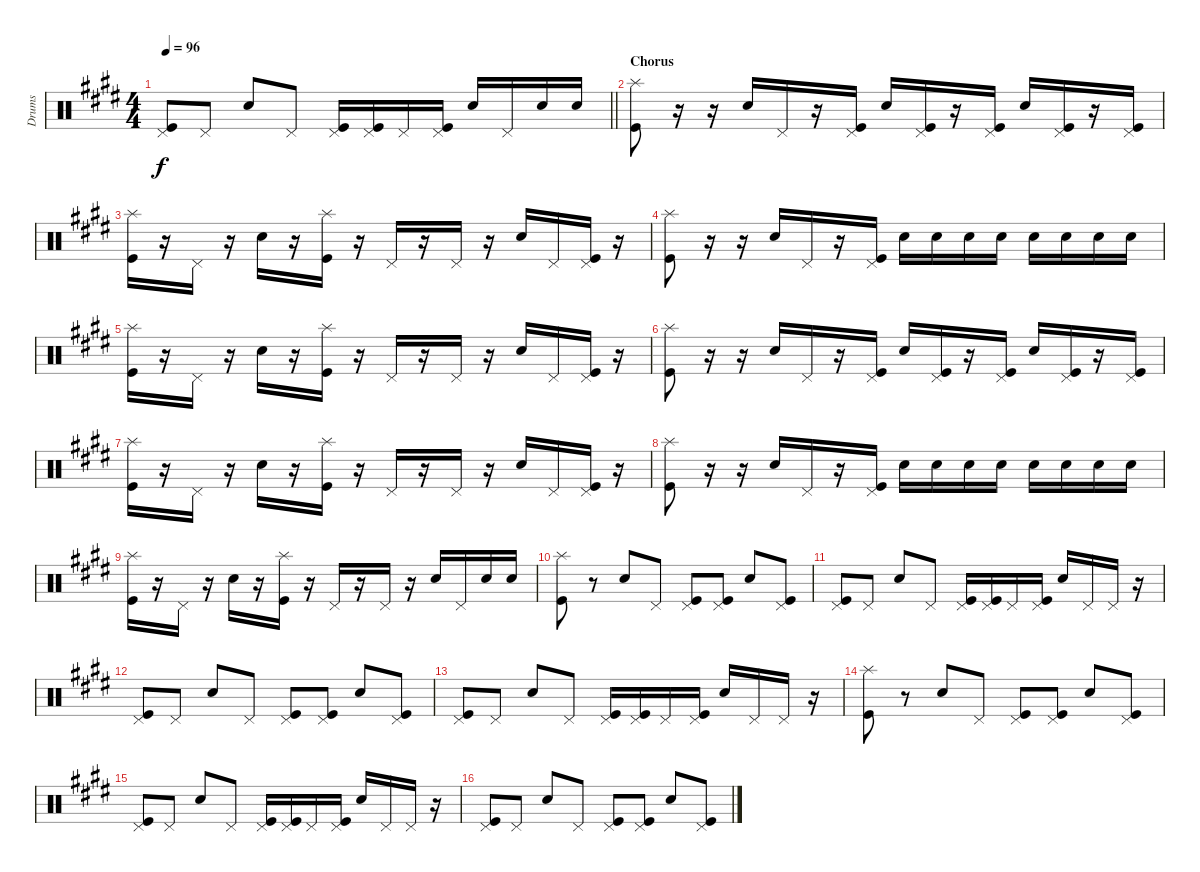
\track ("Drums" "Drums") {instrument percussion}
\staff {score}
\articulation defaults
\ts (4 4)
\tempo 96
\clef neutral
\barLineRight lightlight
\ks e
("Kick (hit)" "Pedal Hi-Hat (hit)").8{dy f} "Pedal Hi-Hat (hit)".8 "Electric Snare (hit)".8 "Pedal Hi-Hat (hit)".8 ("Kick (hit)" "Pedal Hi-Hat (hit)").16 ("Kick (hit)" "Pedal Hi-Hat (hit)").16 "Pedal Hi-Hat (hit)".16 ("Kick (hit)" "Pedal Hi-Hat (hit)").16 "Electric Snare (hit)".16 "Pedal Hi-Hat (hit)".16 "Electric Snare (hit)".16 "Electric Snare (hit)".16 |
\section ("" "Chorus")
("Kick (hit)" "Splash (hit)").8 r.16 r.16 "Electric Snare (hit)".16 "Pedal Hi-Hat (hit)".16 r.16 ("Kick (hit)" "Pedal Hi-Hat (hit)").16 "Electric Snare (hit)".16 ("Kick (hit)" "Pedal Hi-Hat (hit)").16 r.16 ("Kick (hit)" "Pedal Hi-Hat (hit)").16 "Electric Snare (hit)".16 ("Kick (hit)" "Pedal Hi-Hat (hit)").16 r.16 ("Kick (hit)" "Pedal Hi-Hat (hit)").16 |
("Kick (hit)" "Splash (hit)").16 r.16 "Pedal Hi-Hat (hit)".16 r.16 "Electric Snare (hit)".16 r.16 ("Kick (hit)" "Splash (hit)").16 r.16 "Pedal Hi-Hat (hit)".16 r.16 "Pedal Hi-Hat (hit)".16 r.16 "Electric Snare (hit)".16 "Pedal Hi-Hat (hit)".16 ("Kick (hit)" "Pedal Hi-Hat (hit)").16 r.16 |
("Kick (hit)" "Splash (hit)").8 r.16 r.16 "Electric Snare (hit)".16 "Pedal Hi-Hat (hit)".16 r.16 ("Kick (hit)" "Pedal Hi-Hat (hit)").16 "Electric Snare (hit)".16 "Electric Snare (hit)".16 "Electric Snare (hit)".16 "Electric Snare (hit)".16 "Electric Snare (hit)".16 "Electric Snare (hit)".16 "Electric Snare (hit)".16 "Electric Snare (hit)".16 |
("Kick (hit)" "Splash (hit)").16 r.16 "Pedal Hi-Hat (hit)".16 r.16 "Electric Snare (hit)".16 r.16 ("Kick (hit)" "Splash (hit)").16 r.16 "Pedal Hi-Hat (hit)".16 r.16 "Pedal Hi-Hat (hit)".16 r.16 "Electric Snare (hit)".16 "Pedal Hi-Hat (hit)".16 ("Kick (hit)" "Pedal Hi-Hat (hit)").16 r.16 |
("Kick (hit)" "Splash (hit)").8 r.16 r.16 "Electric Snare (hit)".16 "Pedal Hi-Hat (hit)".16 r.16 ("Kick (hit)" "Pedal Hi-Hat (hit)").16 "Electric Snare (hit)".16 ("Kick (hit)" "Pedal Hi-Hat (hit)").16 r.16 ("Kick (hit)" "Pedal Hi-Hat (hit)").16 "Electric Snare (hit)".16 ("Kick (hit)" "Pedal Hi-Hat (hit)").16 r.16 ("Kick (hit)" "Pedal Hi-Hat (hit)").16 |
("Kick (hit)" "Splash (hit)").16 r.16 "Pedal Hi-Hat (hit)".16 r.16 "Electric Snare (hit)".16 r.16 ("Kick (hit)" "Splash (hit)").16 r.16 "Pedal Hi-Hat (hit)".16 r.16 "Pedal Hi-Hat (hit)".16 r.16 "Electric Snare (hit)".16 "Pedal Hi-Hat (hit)".16 ("Kick (hit)" "Pedal Hi-Hat (hit)").16 r.16 |
("Kick (hit)" "Splash (hit)").8 r.16 r.16 "Electric Snare (hit)".16 "Pedal Hi-Hat (hit)".16 r.16 ("Kick (hit)" "Pedal Hi-Hat (hit)").16 "Electric Snare (hit)".16 "Electric Snare (hit)".16 "Electric Snare (hit)".16 "Electric Snare (hit)".16 "Electric Snare (hit)".16 "Electric Snare (hit)".16 "Electric Snare (hit)".16 "Electric Snare (hit)".16 |
("Kick (hit)" "Splash (hit)").16 r.16 "Pedal Hi-Hat (hit)".16 r.16 "Electric Snare (hit)".16 r.16 ("Kick (hit)" "Splash (hit)").16 r.16 "Pedal Hi-Hat (hit)".16 r.16 "Pedal Hi-Hat (hit)".16 r.16 "Electric Snare (hit)".16 "Pedal Hi-Hat (hit)".16 "Electric Snare (hit)".16 "Electric Snare (hit)".16 |
("Kick (hit)" "Splash (hit)").8 r.8 "Electric Snare (hit)".8 "Pedal Hi-Hat (hit)".8 ("Kick (hit)" "Pedal Hi-Hat (hit)").8 ("Kick (hit)" "Pedal Hi-Hat (hit)").8 "Electric Snare (hit)".8 ("Kick (hit)" "Pedal Hi-Hat (hit)").8 |
("Kick (hit)" "Pedal Hi-Hat (hit)").8 "Pedal Hi-Hat (hit)".8 "Electric Snare (hit)".8 "Pedal Hi-Hat (hit)".8 ("Kick (hit)" "Pedal Hi-Hat (hit)").16 ("Kick (hit)" "Pedal Hi-Hat (hit)").16 "Pedal Hi-Hat (hit)".16 ("Kick (hit)" "Pedal Hi-Hat (hit)").16 "Electric Snare (hit)".16 "Pedal Hi-Hat (hit)".16 "Pedal Hi-Hat (hit)".16 r.16 |
("Kick (hit)" "Pedal Hi-Hat (hit)").8 "Pedal Hi-Hat (hit)".8 "Electric Snare (hit)".8 "Pedal Hi-Hat (hit)".8 ("Kick (hit)" "Pedal Hi-Hat (hit)").8 ("Kick (hit)" "Pedal Hi-Hat (hit)").8 "Electric Snare (hit)".8 ("Kick (hit)" "Pedal Hi-Hat (hit)").8 |
("Kick (hit)" "Pedal Hi-Hat (hit)").8 "Pedal Hi-Hat (hit)".8 "Electric Snare (hit)".8 "Pedal Hi-Hat (hit)".8 ("Kick (hit)" "Pedal Hi-Hat (hit)").16 ("Kick (hit)" "Pedal Hi-Hat (hit)").16 "Pedal Hi-Hat (hit)".16 ("Kick (hit)" "Pedal Hi-Hat (hit)").16 "Electric Snare (hit)".16 "Pedal Hi-Hat (hit)".16 "Pedal Hi-Hat (hit)".16 r.16 |
("Kick (hit)" "Splash (hit)").8 r.8 "Electric Snare (hit)".8 "Pedal Hi-Hat (hit)".8 ("Kick (hit)" "Pedal Hi-Hat (hit)").8 ("Kick (hit)" "Pedal Hi-Hat (hit)").8 "Electric Snare (hit)".8 ("Kick (hit)" "Pedal Hi-Hat (hit)").8 |
("Kick (hit)" "Pedal Hi-Hat (hit)").8 "Pedal Hi-Hat (hit)".8 "Electric Snare (hit)".8 "Pedal Hi-Hat (hit)".8 ("Kick (hit)" "Pedal Hi-Hat (hit)").16 ("Kick (hit)" "Pedal Hi-Hat (hit)").16 "Pedal Hi-Hat (hit)".16 ("Kick (hit)" "Pedal Hi-Hat (hit)").16 "Electric Snare (hit)".16 "Pedal Hi-Hat (hit)".16 "Pedal Hi-Hat (hit)".16 r.16 |
("Kick (hit)" "Pedal Hi-Hat (hit)").8 "Pedal Hi-Hat (hit)".8 "Electric Snare (hit)".8 "Pedal Hi-Hat (hit)".8 ("Kick (hit)" "Pedal Hi-Hat (hit)").8 ("Kick (hit)" "Pedal Hi-Hat (hit)").8 "Electric Snare (hit)".8 ("Kick (hit)" "Pedal Hi-Hat (hit)").8
